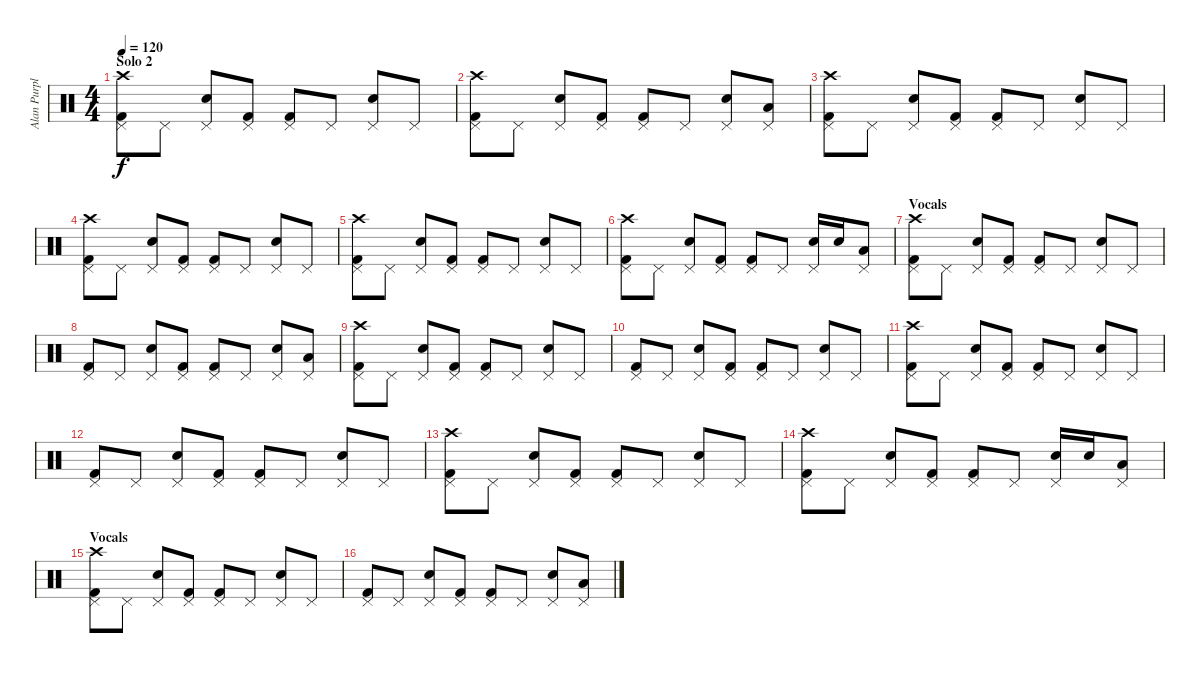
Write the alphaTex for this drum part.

\track ("Alan Purple" "Alan Purpl") {instrument percussion}
\staff {score}
\articulation defaults
\ts (4 4)
\section ("" "Solo 2")
\tempo 120
\clef neutral
\ks c
("Crash high (hit)" "Pedal Hi-Hat (hit)" "Kick (hit) 2").8{dy f} "Pedal Hi-Hat (hit)".8 ("Pedal Hi-Hat (hit)" "Snare (hit) 2").8 ("Pedal Hi-Hat (hit)" "Kick (hit) 2").8 ("Pedal Hi-Hat (hit)" "Kick (hit) 2").8 "Pedal Hi-Hat (hit)".8 ("Pedal Hi-Hat (hit)" "Snare (hit) 2").8 "Pedal Hi-Hat (hit)".8 |
("Crash high (hit)" "Pedal Hi-Hat (hit)" "Kick (hit) 2").8 "Pedal Hi-Hat (hit)".8 ("Pedal Hi-Hat (hit)" "Snare (hit) 2").8 ("Pedal Hi-Hat (hit)" "Kick (hit) 2").8 ("Pedal Hi-Hat (hit)" "Kick (hit) 2").8 "Pedal Hi-Hat (hit)".8 ("Pedal Hi-Hat (hit)" "Snare (hit) 2").8 ("Pedal Hi-Hat (hit)" "Low Tom (hit)").8 |
("Crash high (hit)" "Pedal Hi-Hat (hit)" "Kick (hit) 2").8 "Pedal Hi-Hat (hit)".8 ("Pedal Hi-Hat (hit)" "Snare (hit) 2").8 ("Pedal Hi-Hat (hit)" "Kick (hit) 2").8 ("Pedal Hi-Hat (hit)" "Kick (hit) 2").8 "Pedal Hi-Hat (hit)".8 ("Pedal Hi-Hat (hit)" "Snare (hit) 2").8 "Pedal Hi-Hat (hit)".8 |
("Crash high (hit)" "Pedal Hi-Hat (hit)" "Kick (hit) 2").8 "Pedal Hi-Hat (hit)".8 ("Pedal Hi-Hat (hit)" "Snare (hit) 2").8 ("Pedal Hi-Hat (hit)" "Kick (hit) 2").8 ("Pedal Hi-Hat (hit)" "Kick (hit) 2").8 "Pedal Hi-Hat (hit)".8 ("Pedal Hi-Hat (hit)" "Snare (hit) 2").8 "Pedal Hi-Hat (hit)".8 |
("Crash high (hit)" "Pedal Hi-Hat (hit)" "Kick (hit) 2").8 "Pedal Hi-Hat (hit)".8 ("Pedal Hi-Hat (hit)" "Snare (hit) 2").8 ("Pedal Hi-Hat (hit)" "Kick (hit) 2").8 ("Pedal Hi-Hat (hit)" "Kick (hit) 2").8 "Pedal Hi-Hat (hit)".8 ("Pedal Hi-Hat (hit)" "Snare (hit) 2").8 "Pedal Hi-Hat (hit)".8 |
("Crash high (hit)" "Pedal Hi-Hat (hit)" "Kick (hit) 2").8 "Pedal Hi-Hat (hit)".8 ("Pedal Hi-Hat (hit)" "Snare (hit) 2").8 ("Pedal Hi-Hat (hit)" "Kick (hit) 2").8 ("Pedal Hi-Hat (hit)" "Kick (hit) 2").8 "Pedal Hi-Hat (hit)".8 ("Pedal Hi-Hat (hit)" "Snare (hit) 2").16 "Snare (hit) 2".16 ("Pedal Hi-Hat (hit)" "Low Tom (hit)").8 |
\section ("" "Vocals")
("Crash high (hit)" "Pedal Hi-Hat (hit)" "Kick (hit) 2").8 "Pedal Hi-Hat (hit)".8 ("Pedal Hi-Hat (hit)" "Snare (hit) 2").8 ("Pedal Hi-Hat (hit)" "Kick (hit) 2").8 ("Pedal Hi-Hat (hit)" "Kick (hit) 2").8 "Pedal Hi-Hat (hit)".8 ("Pedal Hi-Hat (hit)" "Snare (hit) 2").8 "Pedal Hi-Hat (hit)".8 |
("Pedal Hi-Hat (hit)" "Kick (hit) 2").8 "Pedal Hi-Hat (hit)".8 ("Pedal Hi-Hat (hit)" "Snare (hit) 2").8 ("Pedal Hi-Hat (hit)" "Kick (hit) 2").8 ("Pedal Hi-Hat (hit)" "Kick (hit) 2").8 "Pedal Hi-Hat (hit)".8 ("Pedal Hi-Hat (hit)" "Snare (hit) 2").8 ("Pedal Hi-Hat (hit)" "Low Tom (hit)").8 |
("Crash high (hit)" "Pedal Hi-Hat (hit)" "Kick (hit) 2").8 "Pedal Hi-Hat (hit)".8 ("Pedal Hi-Hat (hit)" "Snare (hit) 2").8 ("Pedal Hi-Hat (hit)" "Kick (hit) 2").8 ("Pedal Hi-Hat (hit)" "Kick (hit) 2").8 "Pedal Hi-Hat (hit)".8 ("Pedal Hi-Hat (hit)" "Snare (hit) 2").8 "Pedal Hi-Hat (hit)".8 |
("Pedal Hi-Hat (hit)" "Kick (hit) 2").8 "Pedal Hi-Hat (hit)".8 ("Pedal Hi-Hat (hit)" "Snare (hit) 2").8 ("Pedal Hi-Hat (hit)" "Kick (hit) 2").8 ("Pedal Hi-Hat (hit)" "Kick (hit) 2").8 "Pedal Hi-Hat (hit)".8 ("Pedal Hi-Hat (hit)" "Snare (hit) 2").8 "Pedal Hi-Hat (hit)".8 |
("Crash high (hit)" "Pedal Hi-Hat (hit)" "Kick (hit) 2").8 "Pedal Hi-Hat (hit)".8 ("Pedal Hi-Hat (hit)" "Snare (hit) 2").8 ("Pedal Hi-Hat (hit)" "Kick (hit) 2").8 ("Pedal Hi-Hat (hit)" "Kick (hit) 2").8 "Pedal Hi-Hat (hit)".8 ("Pedal Hi-Hat (hit)" "Snare (hit) 2").8 "Pedal Hi-Hat (hit)".8 |
("Pedal Hi-Hat (hit)" "Kick (hit) 2").8 "Pedal Hi-Hat (hit)".8 ("Pedal Hi-Hat (hit)" "Snare (hit) 2").8 ("Pedal Hi-Hat (hit)" "Kick (hit) 2").8 ("Pedal Hi-Hat (hit)" "Kick (hit) 2").8 "Pedal Hi-Hat (hit)".8 ("Pedal Hi-Hat (hit)" "Snare (hit) 2").8 "Pedal Hi-Hat (hit)".8 |
("Crash high (hit)" "Pedal Hi-Hat (hit)" "Kick (hit) 2").8 "Pedal Hi-Hat (hit)".8 ("Pedal Hi-Hat (hit)" "Snare (hit) 2").8 ("Pedal Hi-Hat (hit)" "Kick (hit) 2").8 ("Pedal Hi-Hat (hit)" "Kick (hit) 2").8 "Pedal Hi-Hat (hit)".8 ("Pedal Hi-Hat (hit)" "Snare (hit) 2").8 "Pedal Hi-Hat (hit)".8 |
("Crash high (hit)" "Pedal Hi-Hat (hit)" "Kick (hit) 2").8 "Pedal Hi-Hat (hit)".8 ("Pedal Hi-Hat (hit)" "Snare (hit) 2").8 ("Pedal Hi-Hat (hit)" "Kick (hit) 2").8 ("Pedal Hi-Hat (hit)" "Kick (hit) 2").8 "Pedal Hi-Hat (hit)".8 ("Pedal Hi-Hat (hit)" "Snare (hit) 2").16 "Snare (hit) 2".16 ("Pedal Hi-Hat (hit)" "Low Tom (hit)").8 |
\section ("" "Vocals")
("Crash high (hit)" "Pedal Hi-Hat (hit)" "Kick (hit) 2").8 "Pedal Hi-Hat (hit)".8 ("Pedal Hi-Hat (hit)" "Snare (hit) 2").8 ("Pedal Hi-Hat (hit)" "Kick (hit) 2").8 ("Pedal Hi-Hat (hit)" "Kick (hit) 2").8 "Pedal Hi-Hat (hit)".8 ("Pedal Hi-Hat (hit)" "Snare (hit) 2").8 "Pedal Hi-Hat (hit)".8 |
("Pedal Hi-Hat (hit)" "Kick (hit) 2").8 "Pedal Hi-Hat (hit)".8 ("Pedal Hi-Hat (hit)" "Snare (hit) 2").8 ("Pedal Hi-Hat (hit)" "Kick (hit) 2").8 ("Pedal Hi-Hat (hit)" "Kick (hit) 2").8 "Pedal Hi-Hat (hit)".8 ("Pedal Hi-Hat (hit)" "Snare (hit) 2").8 ("Pedal Hi-Hat (hit)" "Low Tom (hit)").8
